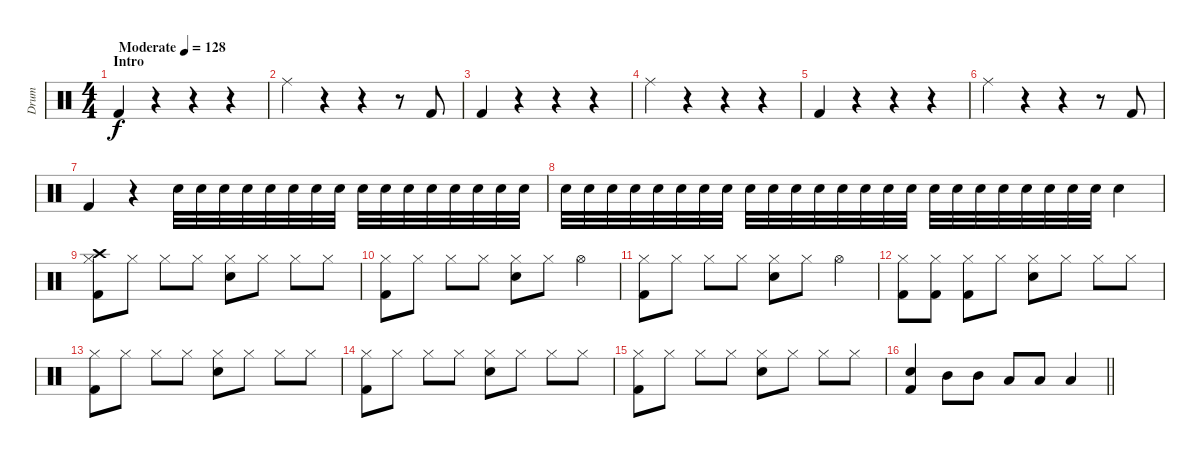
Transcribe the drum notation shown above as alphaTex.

\track ("Drum" "Drum") {instrument percussion}
\staff {score}
\articulation defaults
\ts (4 4)
\section ("" "Intro")
\tempo (128 "Moderate")
\clef neutral
\ks c "Kick (hit) 2".4{dy f}
r.4 r.4 r.4 |
"Ride (middle)".4 r.4 r.4 r.8 "Kick (hit) 2".8 |
"Kick (hit) 2".4 r.4 r.4 r.4 |
"Ride (middle)".4 r.4 r.4 r.4 |
"Kick (hit) 2".4 r.4 r.4 r.4 |
"Ride (middle)".4 r.4 r.4 r.8 "Kick (hit) 2".8 |
"Kick (hit) 2".4 r.4 "Snare (hit) 2".32{volume 6} "Snare (hit) 2".32 "Snare (hit) 2".32 "Snare (hit) 2".32 "Snare (hit) 2".32 "Snare (hit) 2".32 "Snare (hit) 2".32 "Snare (hit) 2".32 "Snare (hit) 2".32{volume 8} "Snare (hit) 2".32 "Snare (hit) 2".32 "Snare (hit) 2".32 "Snare (hit) 2".32 "Snare (hit) 2".32 "Snare (hit) 2".32 "Snare (hit) 2".32 |
"Snare (hit) 2".32{volume 10} "Snare (hit) 2".32 "Snare (hit) 2".32 "Snare (hit) 2".32 "Snare (hit) 2".32 "Snare (hit) 2".32 "Snare (hit) 2".32 "Snare (hit) 2".32 "Snare (hit) 2".32{volume 11} "Snare (hit) 2".32 "Snare (hit) 2".32 "Snare (hit) 2".32 "Snare (hit) 2".32 "Snare (hit) 2".32 "Snare (hit) 2".32 "Snare (hit) 2".32 "Snare (hit) 2".32{volume 10} "Snare (hit) 2".32 "Snare (hit) 2".32 "Snare (hit) 2".32 "Snare (hit) 2".32{volume 8} "Snare (hit) 2".32 "Snare (hit) 2".32 "Snare (hit) 2".32 "Snare (hit) 2".4{volume 13} |
("Crash high (hit)" "Hi-Hat (closed)" "Kick (hit) 2").8 "Hi-Hat (closed)".8 "Hi-Hat (closed)".8 "Hi-Hat (closed)".8 ("Hi-Hat (closed)" "Snare (hit) 2").8 "Hi-Hat (closed)".8 "Hi-Hat (closed)".8 "Hi-Hat (closed)".8 |
("Hi-Hat (closed)" "Kick (hit) 2").8 "Hi-Hat (closed)".8 "Hi-Hat (closed)".8 "Hi-Hat (closed)".8 ("Hi-Hat (closed)" "Snare (hit) 2").8 "Hi-Hat (closed)".8 "Hi-Hat (open)".4 |
("Hi-Hat (closed)" "Kick (hit) 2").8 "Hi-Hat (closed)".8 "Hi-Hat (closed)".8 "Hi-Hat (closed)".8 ("Hi-Hat (closed)" "Snare (hit) 2").8 "Hi-Hat (closed)".8 "Hi-Hat (open)".4 |
("Hi-Hat (closed)" "Kick (hit) 2").8 ("Hi-Hat (closed)" "Kick (hit) 2").8 ("Hi-Hat (closed)" "Kick (hit) 2").8 "Hi-Hat (closed)".8 ("Hi-Hat (closed)" "Snare (hit) 2").8 "Hi-Hat (closed)".8 "Hi-Hat (closed)".8 "Hi-Hat (closed)".8 |
("Hi-Hat (closed)" "Kick (hit) 2").8 "Hi-Hat (closed)".8 "Hi-Hat (closed)".8 "Hi-Hat (closed)".8 ("Hi-Hat (closed)" "Snare (hit) 2").8 "Hi-Hat (closed)".8 "Hi-Hat (closed)".8 "Hi-Hat (closed)".8 |
("Hi-Hat (closed)" "Kick (hit) 2").8 "Hi-Hat (closed)".8 "Hi-Hat (closed)".8 "Hi-Hat (closed)".8 ("Hi-Hat (closed)" "Snare (hit) 2").8 "Hi-Hat (closed)".8 "Hi-Hat (closed)".8 "Hi-Hat (closed)".8 |
("Hi-Hat (closed)" "Kick (hit) 2").8 "Hi-Hat (closed)".8 "Hi-Hat (closed)".8 "Hi-Hat (closed)".8 ("Hi-Hat (closed)" "Snare (hit) 2").8 "Hi-Hat (closed)".8 "Hi-Hat (closed)".8 "Hi-Hat (closed)".8 |
\barLineRight lightlight
("Snare (hit) 2" "Kick (hit) 2").4 "Mid Tom (hit)".8 "Mid Tom (hit)".8 "Low Tom (hit)".8 "Low Tom (hit)".8 "Low Tom (hit)".4
